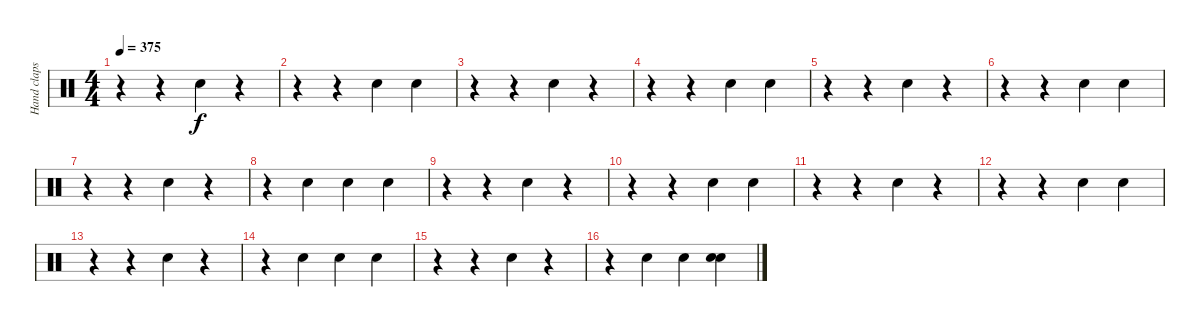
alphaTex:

\track ("Hand claps" "Hand claps") {instrument percussion}
\staff {score}
\articulation defaults
\ts (4 4)
\tempo 375
\clef neutral
\ks c
r.4{dy f} r.4 "Hand Clap (hit)".4 r.4 |
r.4 r.4 "Hand Clap (hit)".4 "Hand Clap (hit)".4 |
r.4 r.4 "Hand Clap (hit)".4 r.4 |
r.4 r.4 "Hand Clap (hit)".4 "Hand Clap (hit)".4 |
r.4 r.4 "Hand Clap (hit)".4 r.4 |
r.4 r.4 "Hand Clap (hit)".4 "Hand Clap (hit)".4 |
r.4 r.4 "Hand Clap (hit)".4 r.4 |
r.4 "Hand Clap (hit)".4 "Hand Clap (hit)".4 "Hand Clap (hit)".4 |
r.4 r.4 "Hand Clap (hit)".4 r.4 |
r.4 r.4 "Hand Clap (hit)".4 "Hand Clap (hit)".4 |
r.4 r.4 "Hand Clap (hit)".4 r.4 |
r.4 r.4 "Hand Clap (hit)".4 "Hand Clap (hit)".4 |
r.4 r.4 "Hand Clap (hit)".4 r.4 |
r.4 "Hand Clap (hit)".4 "Hand Clap (hit)".4 "Hand Clap (hit)".4 |
r.4 r.4 "Hand Clap (hit)".4 r.4 |
r.4 "Hand Clap (hit)".4 "Hand Clap (hit)".4 ("Hand Clap (hit)" "Hand Clap (hit)").4
